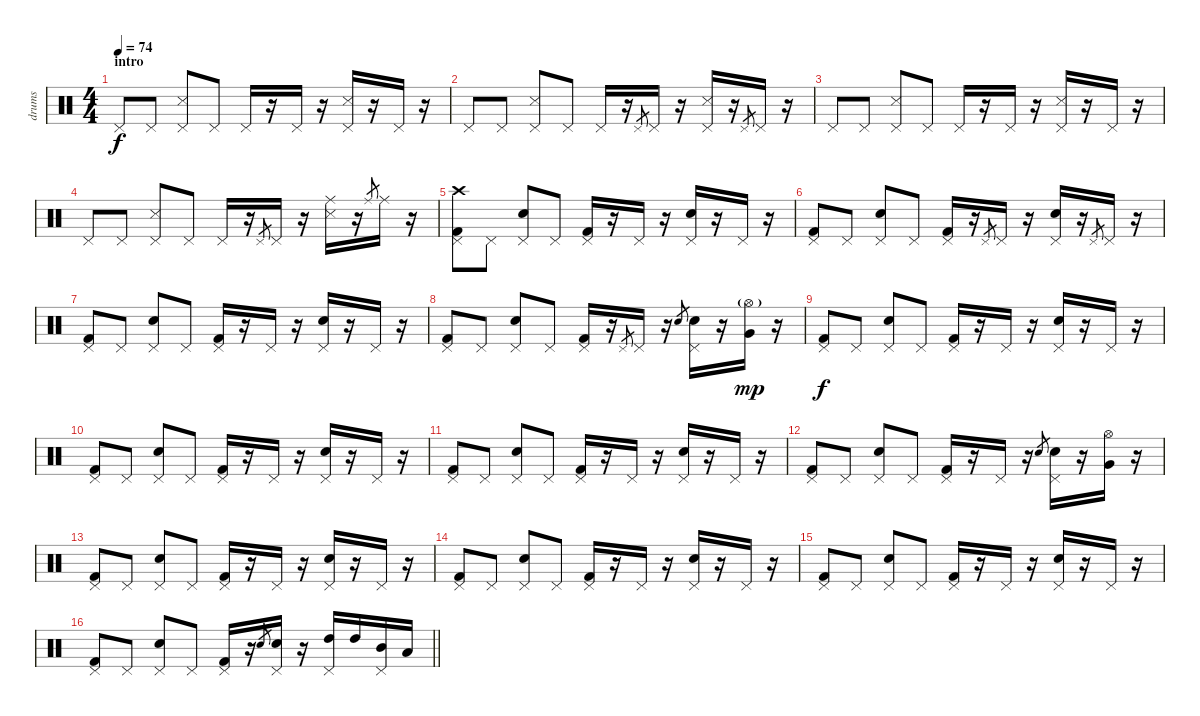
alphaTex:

\track ("drums" "drums") {instrument percussion}
\staff {score}
\articulation defaults
\ts (4 4)
\section ("" "intro")
\tempo 74
\clef neutral
\ks c "Pedal Hi-Hat (hit)".8{dy f} "Pedal Hi-Hat (hit)".8
("Snare (side stick) 3" "Pedal Hi-Hat (hit)").8 "Pedal Hi-Hat (hit)".8 "Pedal Hi-Hat (hit)".16 r.16 "Pedal Hi-Hat (hit)".16 r.16 ("Snare (side stick) 3" "Pedal Hi-Hat (hit)").16 r.16 "Pedal Hi-Hat (hit)".16 r.16 |
"Pedal Hi-Hat (hit)".8 "Pedal Hi-Hat (hit)".8 ("Snare (side stick) 3" "Pedal Hi-Hat (hit)").8 "Pedal Hi-Hat (hit)".8 "Pedal Hi-Hat (hit)".16 r.16 "Pedal Hi-Hat (hit)".8{gr} "Pedal Hi-Hat (hit)".16 r.16 ("Snare (side stick) 3" "Pedal Hi-Hat (hit)").16 r.16 "Pedal Hi-Hat (hit)".8{gr} "Pedal Hi-Hat (hit)".16 r.16 |
"Pedal Hi-Hat (hit)".8 "Pedal Hi-Hat (hit)".8 ("Snare (side stick) 3" "Pedal Hi-Hat (hit)").8 "Pedal Hi-Hat (hit)".8 "Pedal Hi-Hat (hit)".16 r.16 "Pedal Hi-Hat (hit)".16 r.16 ("Snare (side stick) 3" "Pedal Hi-Hat (hit)").16 r.16 "Pedal Hi-Hat (hit)".16 r.16 |
"Pedal Hi-Hat (hit)".8 "Pedal Hi-Hat (hit)".8 ("Snare (side stick) 3" "Pedal Hi-Hat (hit)").8 "Pedal Hi-Hat (hit)".8 "Pedal Hi-Hat (hit)".16 r.16 "Pedal Hi-Hat (hit)".8{gr} "Pedal Hi-Hat (hit)".16 r.16 ("Snare (side stick) 3" "Ride (middle)").16 r.16 "Ride (middle)".8{gr} "Ride (middle)".16 r.16 |
("Kick (hit) 2" "Pedal Hi-Hat (hit)" "Crash high (hit)").8 "Pedal Hi-Hat (hit)".8 ("Electric Snare (hit)" "Pedal Hi-Hat (hit)").8 "Pedal Hi-Hat (hit)".8 ("Kick (hit) 2" "Pedal Hi-Hat (hit)").16 r.16 "Pedal Hi-Hat (hit)".16 r.16 ("Electric Snare (hit)" "Pedal Hi-Hat (hit)").16 r.16 "Pedal Hi-Hat (hit)".16 r.16 |
("Kick (hit) 2" "Pedal Hi-Hat (hit)").8 "Pedal Hi-Hat (hit)".8 ("Electric Snare (hit)" "Pedal Hi-Hat (hit)").8 "Pedal Hi-Hat (hit)".8 ("Kick (hit) 2" "Pedal Hi-Hat (hit)").16 r.16 "Pedal Hi-Hat (hit)".8{gr} "Pedal Hi-Hat (hit)".16 r.16 ("Electric Snare (hit)" "Pedal Hi-Hat (hit)").16 r.16 "Pedal Hi-Hat (hit)".8{gr} "Pedal Hi-Hat (hit)".16 r.16 |
("Kick (hit) 2" "Pedal Hi-Hat (hit)").8 "Pedal Hi-Hat (hit)".8 ("Electric Snare (hit)" "Pedal Hi-Hat (hit)").8 "Pedal Hi-Hat (hit)".8 ("Kick (hit) 2" "Pedal Hi-Hat (hit)").16 r.16 "Pedal Hi-Hat (hit)".16 r.16 ("Electric Snare (hit)" "Pedal Hi-Hat (hit)").16 r.16 "Pedal Hi-Hat (hit)".16 r.16 |
("Kick (hit) 2" "Pedal Hi-Hat (hit)").8 "Pedal Hi-Hat (hit)".8 ("Electric Snare (hit)" "Pedal Hi-Hat (hit)").8 "Pedal Hi-Hat (hit)".8 ("Kick (hit) 2" "Pedal Hi-Hat (hit)").16 r.16 "Pedal Hi-Hat (hit)".8{gr} "Pedal Hi-Hat (hit)".16 r.16 "Electric Snare (hit)".8{gr} ("Electric Snare (hit)" "Pedal Hi-Hat (hit)").16 r.16 ("Very Low Tom (hit)" "Hi-Hat (open)"{g}).16{dy mp} r.16 |
("Kick (hit) 2" "Pedal Hi-Hat (hit)").8{dy f} "Pedal Hi-Hat (hit)".8 ("Electric Snare (hit)" "Pedal Hi-Hat (hit)").8 "Pedal Hi-Hat (hit)".8 ("Kick (hit) 2" "Pedal Hi-Hat (hit)").16 r.16 "Pedal Hi-Hat (hit)".16 r.16 ("Electric Snare (hit)" "Pedal Hi-Hat (hit)").16 r.16 "Pedal Hi-Hat (hit)".16 r.16 |
("Kick (hit) 2" "Pedal Hi-Hat (hit)").8 "Pedal Hi-Hat (hit)".8 ("Electric Snare (hit)" "Pedal Hi-Hat (hit)").8 "Pedal Hi-Hat (hit)".8 ("Kick (hit) 2" "Pedal Hi-Hat (hit)").16 r.16 "Pedal Hi-Hat (hit)".16 r.16 ("Electric Snare (hit)" "Pedal Hi-Hat (hit)").16 r.16 "Pedal Hi-Hat (hit)".16 r.16 |
("Kick (hit) 2" "Pedal Hi-Hat (hit)").8 "Pedal Hi-Hat (hit)".8 ("Electric Snare (hit)" "Pedal Hi-Hat (hit)").8 "Pedal Hi-Hat (hit)".8 ("Kick (hit) 2" "Pedal Hi-Hat (hit)").16 r.16 "Pedal Hi-Hat (hit)".16 r.16 ("Electric Snare (hit)" "Pedal Hi-Hat (hit)").16 r.16 "Pedal Hi-Hat (hit)".16 r.16 |
("Kick (hit) 2" "Pedal Hi-Hat (hit)").8 "Pedal Hi-Hat (hit)".8 ("Electric Snare (hit)" "Pedal Hi-Hat (hit)").8 "Pedal Hi-Hat (hit)".8 ("Kick (hit) 2" "Pedal Hi-Hat (hit)").16 r.16 "Pedal Hi-Hat (hit)".16 r.16 "Electric Snare (hit)".8{gr} ("Electric Snare (hit)" "Pedal Hi-Hat (hit)").16 r.16 ("Very Low Tom (hit)" "Hi-Hat (open)").16 r.16 |
("Kick (hit) 2" "Pedal Hi-Hat (hit)").8 "Pedal Hi-Hat (hit)".8 ("Electric Snare (hit)" "Pedal Hi-Hat (hit)").8 "Pedal Hi-Hat (hit)".8 ("Kick (hit) 2" "Pedal Hi-Hat (hit)").16 r.16 "Pedal Hi-Hat (hit)".16 r.16 ("Electric Snare (hit)" "Pedal Hi-Hat (hit)").16 r.16 "Pedal Hi-Hat (hit)".16 r.16 |
("Kick (hit) 2" "Pedal Hi-Hat (hit)").8 "Pedal Hi-Hat (hit)".8 ("Electric Snare (hit)" "Pedal Hi-Hat (hit)").8 "Pedal Hi-Hat (hit)".8 ("Kick (hit) 2" "Pedal Hi-Hat (hit)").16 r.16 "Pedal Hi-Hat (hit)".16 r.16 ("Electric Snare (hit)" "Pedal Hi-Hat (hit)").16 r.16 "Pedal Hi-Hat (hit)".16 r.16 |
("Kick (hit) 2" "Pedal Hi-Hat (hit)").8 "Pedal Hi-Hat (hit)".8 ("Electric Snare (hit)" "Pedal Hi-Hat (hit)").8 "Pedal Hi-Hat (hit)".8 ("Kick (hit) 2" "Pedal Hi-Hat (hit)").16 r.16 "Pedal Hi-Hat (hit)".16 r.16 ("Electric Snare (hit)" "Pedal Hi-Hat (hit)").16 r.16 "Pedal Hi-Hat (hit)".16 r.16 |
\barLineRight lightlight
("Kick (hit) 2" "Pedal Hi-Hat (hit)").8 "Pedal Hi-Hat (hit)".8 ("Electric Snare (hit)" "Pedal Hi-Hat (hit)").8 "Pedal Hi-Hat (hit)".8 ("Kick (hit) 2" "Pedal Hi-Hat (hit)").16 r.16 "Electric Snare (hit)".8{gr} ("Electric Snare (hit)" "Pedal Hi-Hat (hit)").16 r.16 ("High Tom (hit)" "Pedal Hi-Hat (hit)").16 "High Tom (hit)".16 ("Mid Tom (hit)" "Pedal Hi-Hat (hit)").16 "Low Tom (hit)".16
